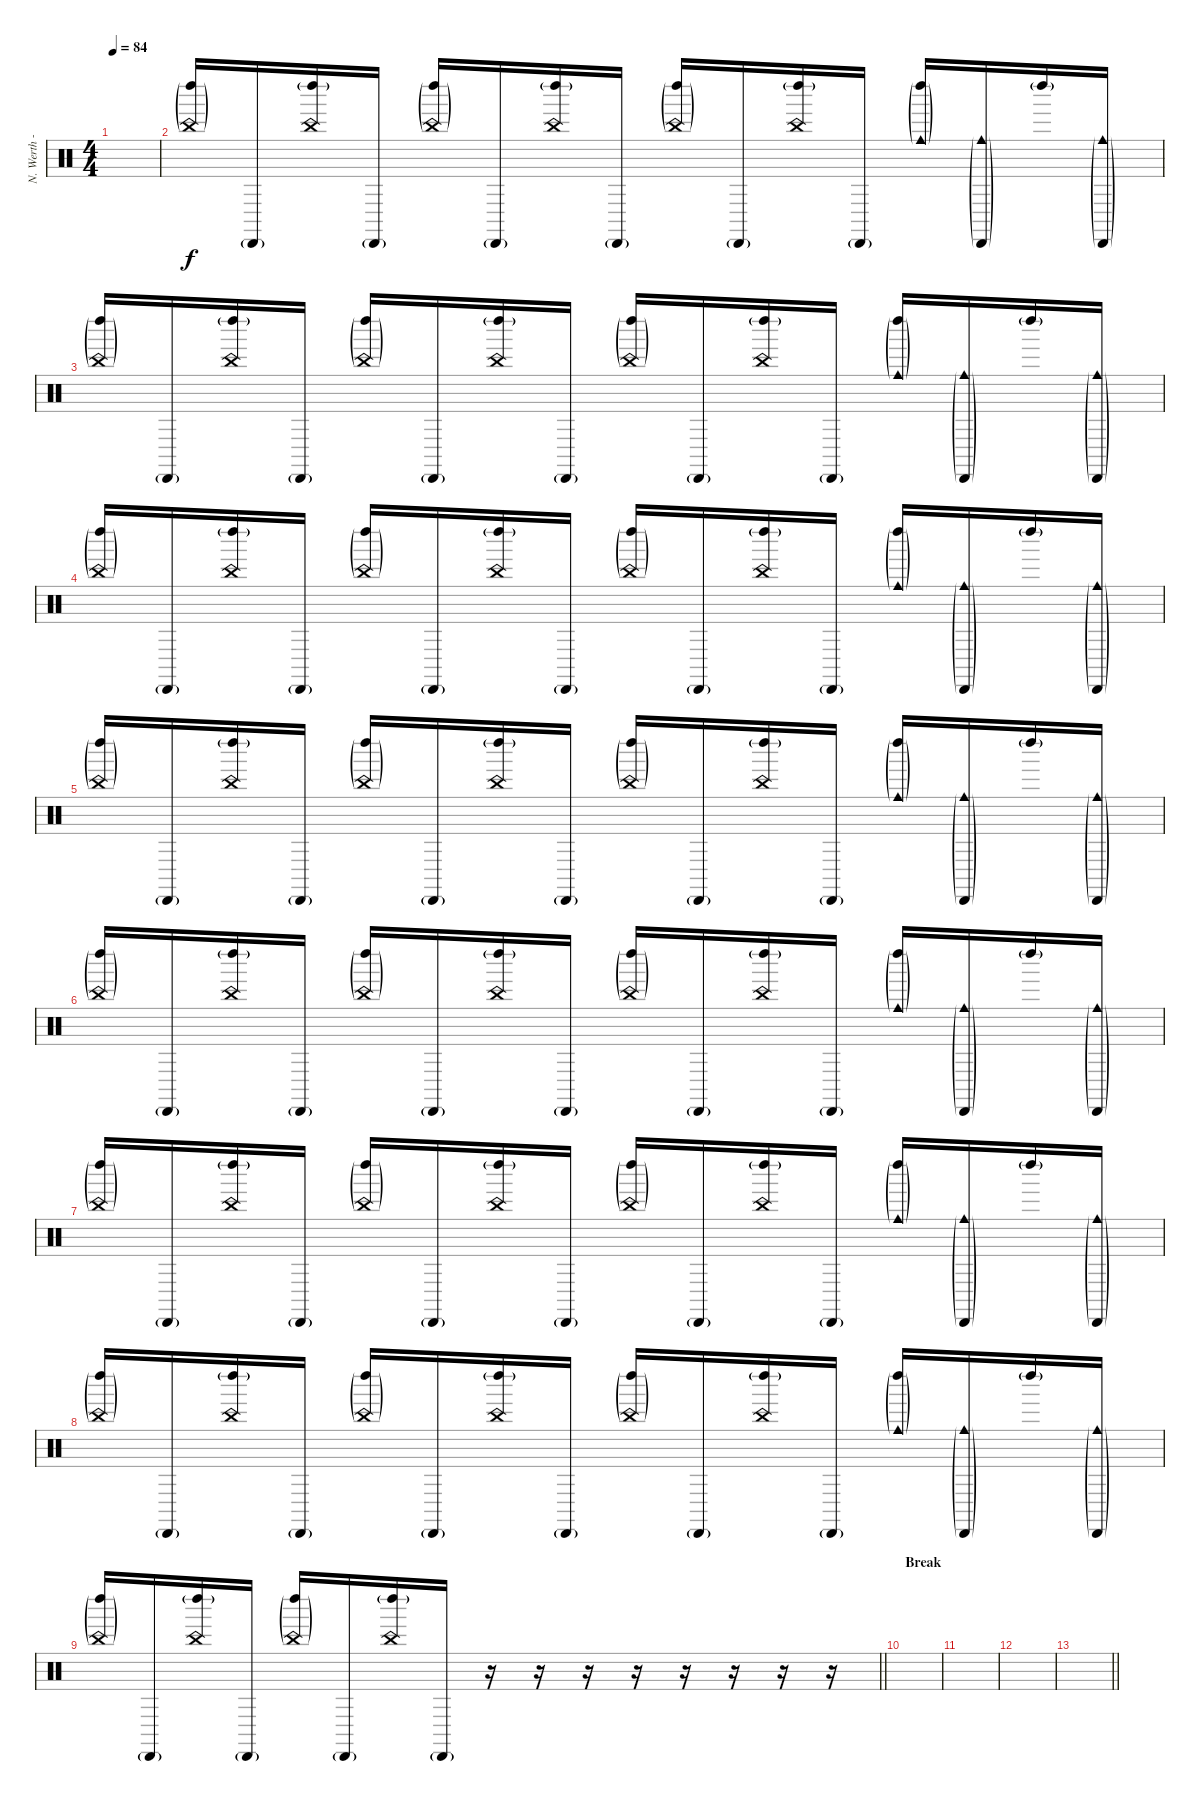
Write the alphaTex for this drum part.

\track ("N. Werth - Percussion" "N. Werth -") {instrument percussion}
\staff {score}
\articulation defaults
\ts (4 4)
\tempo 84
\clef neutral
\ks c
|
("Left Maraca (hit)"{g} "China (hit)"{g}).16 "Cabasa (hit)"{g}.16 ("Left Maraca (hit)"{g} "China (hit)").16 "Cabasa (hit)"{g}.16 ("Left Maraca (hit)"{g} "China (hit)"{g}).16 "Cabasa (hit)"{g}.16 ("Left Maraca (hit)"{g} "China (hit)").16 "Cabasa (hit)"{g}.16 ("Left Maraca (hit)"{g} "China (hit)"{g}).16 "Cabasa (hit)"{g}.16 ("Left Maraca (hit)"{g} "China (hit)").16 "Cabasa (hit)"{g}.16 ("Left Maraca (hit)"{g} "Cowbell medium (hit)"{g}).16 ("Cabasa (hit)"{g} "Cowbell medium (hit)"{g}).16 "Left Maraca (hit)"{g}.16 ("Cabasa (hit)"{g} "Cowbell medium (hit)"{g}).16 |
("Left Maraca (hit)"{g} "China (hit)"{g}).16 "Cabasa (hit)"{g}.16 ("Left Maraca (hit)"{g} "China (hit)").16 "Cabasa (hit)"{g}.16 ("Left Maraca (hit)"{g} "China (hit)"{g}).16 "Cabasa (hit)"{g}.16 ("Left Maraca (hit)"{g} "China (hit)").16 "Cabasa (hit)"{g}.16 ("Left Maraca (hit)"{g} "China (hit)"{g}).16 "Cabasa (hit)"{g}.16 ("Left Maraca (hit)"{g} "China (hit)").16 "Cabasa (hit)"{g}.16 ("Left Maraca (hit)"{g} "Cowbell medium (hit)"{g}).16 ("Cabasa (hit)"{g} "Cowbell medium (hit)"{g}).16 "Left Maraca (hit)"{g}.16 ("Cabasa (hit)"{g} "Cowbell medium (hit)"{g}).16 |
("Left Maraca (hit)"{g} "China (hit)"{g}).16 "Cabasa (hit)"{g}.16 ("Left Maraca (hit)"{g} "China (hit)").16 "Cabasa (hit)"{g}.16 ("Left Maraca (hit)"{g} "China (hit)"{g}).16 "Cabasa (hit)"{g}.16 ("Left Maraca (hit)"{g} "China (hit)").16 "Cabasa (hit)"{g}.16 ("Left Maraca (hit)"{g} "China (hit)"{g}).16 "Cabasa (hit)"{g}.16 ("Left Maraca (hit)"{g} "China (hit)").16 "Cabasa (hit)"{g}.16 ("Left Maraca (hit)"{g} "Cowbell medium (hit)"{g}).16 ("Cabasa (hit)"{g} "Cowbell medium (hit)"{g}).16 "Left Maraca (hit)"{g}.16 ("Cabasa (hit)"{g} "Cowbell medium (hit)"{g}).16 |
("Left Maraca (hit)"{g} "China (hit)"{g}).16 "Cabasa (hit)"{g}.16 ("Left Maraca (hit)"{g} "China (hit)").16 "Cabasa (hit)"{g}.16 ("Left Maraca (hit)"{g} "China (hit)"{g}).16 "Cabasa (hit)"{g}.16 ("Left Maraca (hit)"{g} "China (hit)").16 "Cabasa (hit)"{g}.16 ("Left Maraca (hit)"{g} "China (hit)"{g}).16 "Cabasa (hit)"{g}.16 ("Left Maraca (hit)"{g} "China (hit)").16 "Cabasa (hit)"{g}.16 ("Left Maraca (hit)"{g} "Cowbell medium (hit)"{g}).16 ("Cabasa (hit)"{g} "Cowbell medium (hit)"{g}).16 "Left Maraca (hit)"{g}.16 ("Cabasa (hit)"{g} "Cowbell medium (hit)"{g}).16 |
("Left Maraca (hit)"{g} "China (hit)"{g}).16 "Cabasa (hit)"{g}.16 ("Left Maraca (hit)"{g} "China (hit)").16 "Cabasa (hit)"{g}.16 ("Left Maraca (hit)"{g} "China (hit)"{g}).16 "Cabasa (hit)"{g}.16 ("Left Maraca (hit)"{g} "China (hit)").16 "Cabasa (hit)"{g}.16 ("Left Maraca (hit)"{g} "China (hit)"{g}).16 "Cabasa (hit)"{g}.16 ("Left Maraca (hit)"{g} "China (hit)").16 "Cabasa (hit)"{g}.16 ("Left Maraca (hit)"{g} "Cowbell medium (hit)"{g}).16 ("Cabasa (hit)"{g} "Cowbell medium (hit)"{g}).16 "Left Maraca (hit)"{g}.16 ("Cabasa (hit)"{g} "Cowbell medium (hit)"{g}).16 |
("Left Maraca (hit)"{g} "China (hit)"{g}).16 "Cabasa (hit)"{g}.16 ("Left Maraca (hit)"{g} "China (hit)").16 "Cabasa (hit)"{g}.16 ("Left Maraca (hit)"{g} "China (hit)"{g}).16 "Cabasa (hit)"{g}.16 ("Left Maraca (hit)"{g} "China (hit)").16 "Cabasa (hit)"{g}.16 ("Left Maraca (hit)"{g} "China (hit)"{g}).16 "Cabasa (hit)"{g}.16 ("Left Maraca (hit)"{g} "China (hit)").16 "Cabasa (hit)"{g}.16 ("Left Maraca (hit)"{g} "Cowbell medium (hit)"{g}).16 ("Cabasa (hit)"{g} "Cowbell medium (hit)"{g}).16 "Left Maraca (hit)"{g}.16 ("Cabasa (hit)"{g} "Cowbell medium (hit)"{g}).16 |
("Left Maraca (hit)"{g} "China (hit)"{g}).16 "Cabasa (hit)"{g}.16 ("Left Maraca (hit)"{g} "China (hit)").16 "Cabasa (hit)"{g}.16 ("Left Maraca (hit)"{g} "China (hit)"{g}).16 "Cabasa (hit)"{g}.16 ("Left Maraca (hit)"{g} "China (hit)").16 "Cabasa (hit)"{g}.16 ("Left Maraca (hit)"{g} "China (hit)"{g}).16 "Cabasa (hit)"{g}.16 ("Left Maraca (hit)"{g} "China (hit)").16 "Cabasa (hit)"{g}.16 ("Left Maraca (hit)"{g} "Cowbell medium (hit)"{g}).16 ("Cabasa (hit)"{g} "Cowbell medium (hit)"{g}).16 "Left Maraca (hit)"{g}.16 ("Cabasa (hit)"{g} "Cowbell medium (hit)"{g}).16 |
\barLineRight lightlight
("Left Maraca (hit)"{g} "China (hit)"{g}).16 "Cabasa (hit)"{g}.16 ("Left Maraca (hit)"{g} "China (hit)").16 "Cabasa (hit)"{g}.16 ("Left Maraca (hit)"{g} "China (hit)"{g}).16 "Cabasa (hit)"{g}.16 ("Left Maraca (hit)"{g} "China (hit)").16 "Cabasa (hit)"{g}.16 r.16 r.16 r.16 r.16 r.16 r.16 r.16 r.16 |
\section ("" "Break")
|
|
|
\barLineRight lightlight
